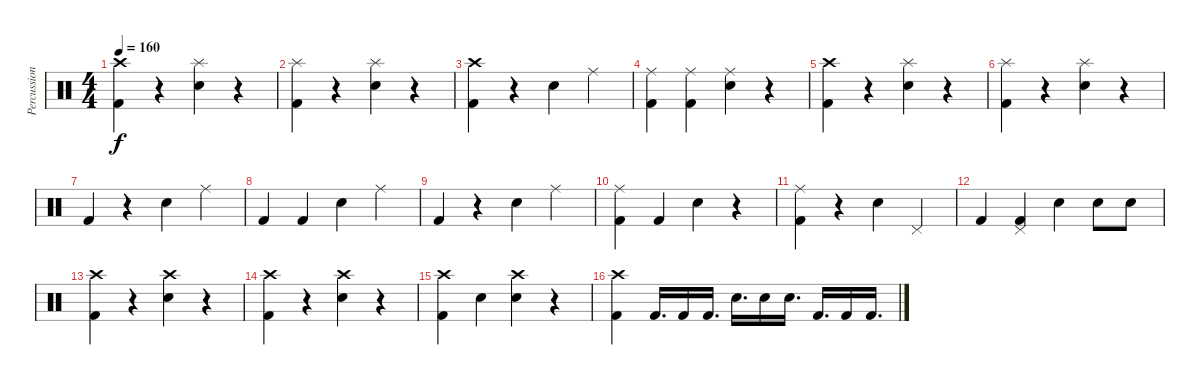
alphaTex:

\track ("Percussion" "Percussion") {instrument percussion}
\staff {score}
\articulation defaults
\ts (4 4)
\tempo 160
\clef neutral
\ks c
("Crash high (hit)" "Kick (hit) 2").4{dy f} r.4 ("Splash (hit)" "Snare (hit) 2").4 r.4 |
("Splash (hit)" "Kick (hit) 2").4 r.4 ("Splash (hit)" "Snare (hit) 2").4 r.4 |
("Crash high (hit)" "Kick (hit) 2").4 r.4 "Snare (hit) 2".4 "Ride (middle)".4 |
("Ride (middle)" "Kick (hit) 2").4 ("Ride (middle)" "Kick (hit) 2").4 ("Ride (middle)" "Snare (hit) 2").4 r.4 |
("Crash high (hit)" "Kick (hit) 2").4 r.4 ("Splash (hit)" "Snare (hit) 2").4 r.4 |
("Splash (hit)" "Kick (hit) 2").4 r.4 ("Splash (hit)" "Snare (hit) 2").4 r.4 |
"Kick (hit) 2".4 r.4 "Snare (hit) 2".4 "Ride (middle)".4 |
"Kick (hit) 2".4 "Kick (hit) 2".4 "Snare (hit) 2".4 "Ride (middle)".4 |
"Kick (hit) 2".4 r.4 "Snare (hit) 2".4 "Ride (middle)".4 |
("Ride (middle)" "Kick (hit) 2").4 "Kick (hit) 2".4 "Snare (hit) 2".4 r.4 |
("Ride (middle)" "Kick (hit) 2").4 r.4 "Snare (hit) 2".4 "Pedal Hi-Hat (hit)".4 |
"Kick (hit) 2".4 ("Pedal Hi-Hat (hit)" "Kick (hit) 2").4 "Snare (hit) 2".4 "Snare (hit) 2".8 "Snare (hit) 2".8 |
("Crash high (hit)" "Kick (hit) 2").4 r.4 ("Crash high (hit)" "Snare (hit) 2").4 r.4 |
("Crash high (hit)" "Kick (hit) 2").4 r.4 ("Crash high (hit)" "Snare (hit) 2").4 r.4 |
("Crash high (hit)" "Kick (hit) 2").4 "Snare (hit) 2".4 ("Crash high (hit)" "Snare (hit) 2").4 r.4 |
("Crash high (hit)" "Kick (hit) 2").4 "Kick (hit) 2".16{d} "Kick (hit) 2".16 "Kick (hit) 2".16{d} "Snare (hit) 2".16{d} "Snare (hit) 2".16 "Snare (hit) 2".16{d} "Kick (hit) 2".16{d} "Kick (hit) 2".16 "Kick (hit) 2".16{d}
